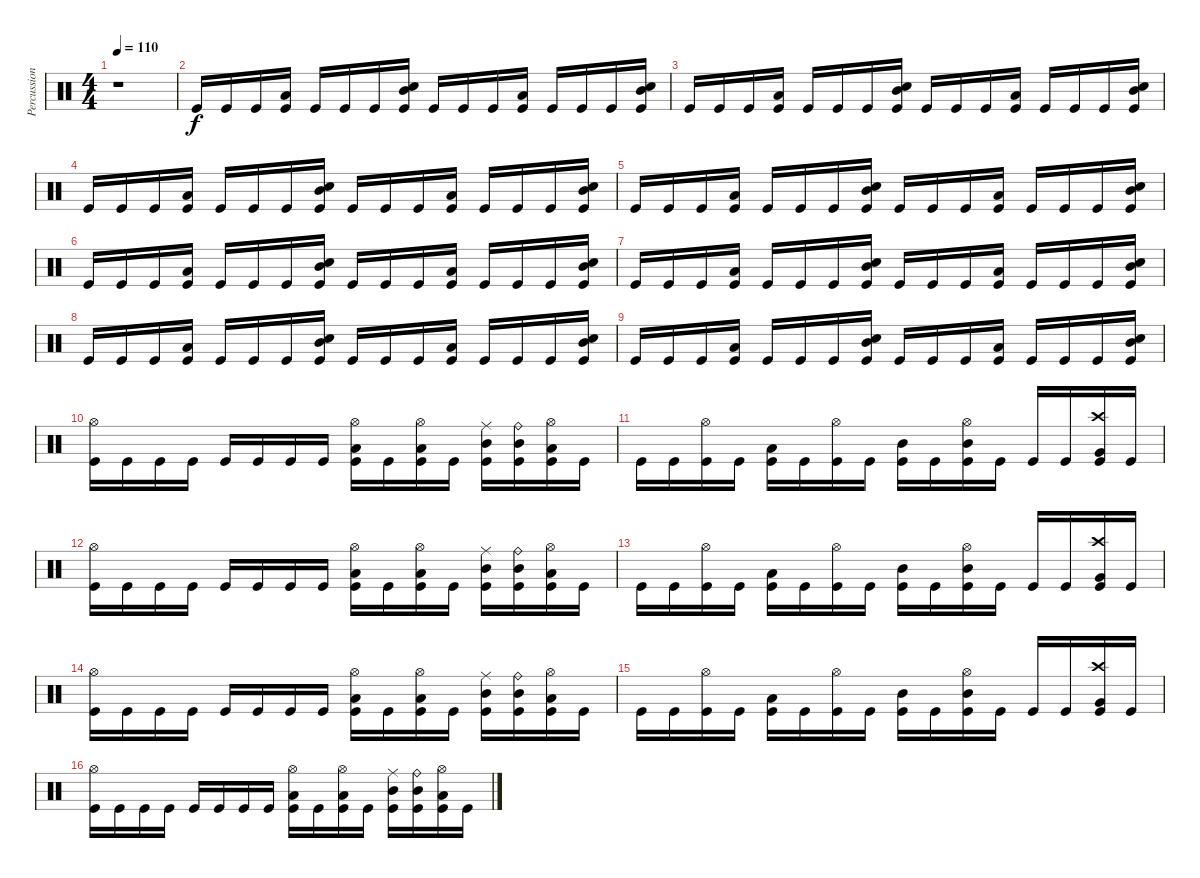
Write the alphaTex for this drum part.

\track ("Percussion" "Percussion") {instrument percussion}
\staff {score}
\articulation defaults
\ts (4 4)
\tempo 110
\clef neutral
\ks c
r.1{dy f} |
"Kick (hit)".16 "Kick (hit)".16 "Kick (hit)".16 ("Low Tom (hit)" "Kick (hit)").16 "Kick (hit)".16 "Kick (hit)".16 "Kick (hit)".16 ("Mid Tom (hit)" "Electric Snare (hit)" "Kick (hit)").16 "Kick (hit)".16 "Kick (hit)".16 "Kick (hit)".16 ("Low Tom (hit)" "Kick (hit)").16 "Kick (hit)".16 "Kick (hit)".16 "Kick (hit)".16 ("Mid Tom (hit)" "Electric Snare (hit)" "Kick (hit)").16 |
"Kick (hit)".16 "Kick (hit)".16 "Kick (hit)".16 ("Low Tom (hit)" "Kick (hit)").16 "Kick (hit)".16 "Kick (hit)".16 "Kick (hit)".16 ("Mid Tom (hit)" "Electric Snare (hit)" "Kick (hit)").16 "Kick (hit)".16 "Kick (hit)".16 "Kick (hit)".16 ("Low Tom (hit)" "Kick (hit)").16 "Kick (hit)".16 "Kick (hit)".16 "Kick (hit)".16 ("Mid Tom (hit)" "Electric Snare (hit)" "Kick (hit)").16 |
"Kick (hit)".16 "Kick (hit)".16 "Kick (hit)".16 ("Low Tom (hit)" "Kick (hit)").16 "Kick (hit)".16 "Kick (hit)".16 "Kick (hit)".16 ("Mid Tom (hit)" "Electric Snare (hit)" "Kick (hit)").16 "Kick (hit)".16 "Kick (hit)".16 "Kick (hit)".16 ("Low Tom (hit)" "Kick (hit)").16 "Kick (hit)".16 "Kick (hit)".16 "Kick (hit)".16 ("Mid Tom (hit)" "Electric Snare (hit)" "Kick (hit)").16 |
"Kick (hit)".16 "Kick (hit)".16 "Kick (hit)".16 ("Low Tom (hit)" "Kick (hit)").16 "Kick (hit)".16 "Kick (hit)".16 "Kick (hit)".16 ("Mid Tom (hit)" "Electric Snare (hit)" "Kick (hit)").16 "Kick (hit)".16 "Kick (hit)".16 "Kick (hit)".16 ("Low Tom (hit)" "Kick (hit)").16 "Kick (hit)".16 "Kick (hit)".16 "Kick (hit)".16 ("Mid Tom (hit)" "Electric Snare (hit)" "Kick (hit)").16 |
"Kick (hit)".16 "Kick (hit)".16 "Kick (hit)".16 ("Low Tom (hit)" "Kick (hit)").16 "Kick (hit)".16 "Kick (hit)".16 "Kick (hit)".16 ("Mid Tom (hit)" "Electric Snare (hit)" "Kick (hit)").16 "Kick (hit)".16 "Kick (hit)".16 "Kick (hit)".16 ("Low Tom (hit)" "Kick (hit)").16 "Kick (hit)".16 "Kick (hit)".16 "Kick (hit)".16 ("Mid Tom (hit)" "Electric Snare (hit)" "Kick (hit)").16 |
"Kick (hit)".16 "Kick (hit)".16 "Kick (hit)".16 ("Low Tom (hit)" "Kick (hit)").16 "Kick (hit)".16 "Kick (hit)".16 "Kick (hit)".16 ("Mid Tom (hit)" "Electric Snare (hit)" "Kick (hit)").16 "Kick (hit)".16 "Kick (hit)".16 "Kick (hit)".16 ("Low Tom (hit)" "Kick (hit)").16 "Kick (hit)".16 "Kick (hit)".16 "Kick (hit)".16 ("Mid Tom (hit)" "Electric Snare (hit)" "Kick (hit)").16 |
"Kick (hit)".16 "Kick (hit)".16 "Kick (hit)".16 ("Low Tom (hit)" "Kick (hit)").16 "Kick (hit)".16 "Kick (hit)".16 "Kick (hit)".16 ("Mid Tom (hit)" "Electric Snare (hit)" "Kick (hit)").16 "Kick (hit)".16 "Kick (hit)".16 "Kick (hit)".16 ("Low Tom (hit)" "Kick (hit)").16 "Kick (hit)".16 "Kick (hit)".16 "Kick (hit)".16 ("Mid Tom (hit)" "Electric Snare (hit)" "Kick (hit)").16 |
"Kick (hit)".16 "Kick (hit)".16 "Kick (hit)".16 ("Low Tom (hit)" "Kick (hit)").16 "Kick (hit)".16 "Kick (hit)".16 "Kick (hit)".16 ("Mid Tom (hit)" "Electric Snare (hit)" "Kick (hit)").16 "Kick (hit)".16 "Kick (hit)".16 "Kick (hit)".16 ("Low Tom (hit)" "Kick (hit)").16 "Kick (hit)".16 "Kick (hit)".16 "Kick (hit)".16 ("Mid Tom (hit)" "Electric Snare (hit)" "Kick (hit)").16 |
("Hi-Hat (open)" "Kick (hit)").16 "Kick (hit)".16 "Kick (hit)".16 "Kick (hit)".16 "Kick (hit)".16 "Kick (hit)".16 "Kick (hit)".16 "Kick (hit)".16 ("Hi-Hat (open)" "Low Tom (hit)" "Kick (hit)").16 "Kick (hit)".16 ("Hi-Hat (open)" "Low Tom (hit)" "Kick (hit)").16 "Kick (hit)".16 ("Ride (middle)" "Mid Tom (hit)" "Kick (hit)").16 ("Ride (bell)" "Mid Tom (hit)" "Kick (hit)").16 ("Hi-Hat (open)" "Low Tom (hit)" "Kick (hit)").16 "Kick (hit)".16 |
"Kick (hit)".16 "Kick (hit)".16 ("Hi-Hat (open)" "Kick (hit)").16 "Kick (hit)".16 ("Low Tom (hit)" "Kick (hit)").16 "Kick (hit)".16 ("Hi-Hat (open)" "Kick (hit)").16 "Kick (hit)".16 ("Mid Tom (hit)" "Kick (hit)").16 "Kick (hit)".16 ("Hi-Hat (open)" "Mid Tom (hit)" "Kick (hit)").16 "Kick (hit)".16 "Kick (hit)".16 "Kick (hit)".16 ("Crash high (hit)" "Very Low Tom (hit)" "Kick (hit)").16 "Kick (hit)".16 |
("Hi-Hat (open)" "Kick (hit)").16 "Kick (hit)".16 "Kick (hit)".16 "Kick (hit)".16 "Kick (hit)".16 "Kick (hit)".16 "Kick (hit)".16 "Kick (hit)".16 ("Hi-Hat (open)" "Low Tom (hit)" "Kick (hit)").16 "Kick (hit)".16 ("Hi-Hat (open)" "Low Tom (hit)" "Kick (hit)").16 "Kick (hit)".16 ("Ride (middle)" "Mid Tom (hit)" "Kick (hit)").16 ("Ride (bell)" "Mid Tom (hit)" "Kick (hit)").16 ("Hi-Hat (open)" "Low Tom (hit)" "Kick (hit)").16 "Kick (hit)".16 |
"Kick (hit)".16 "Kick (hit)".16 ("Hi-Hat (open)" "Kick (hit)").16 "Kick (hit)".16 ("Low Tom (hit)" "Kick (hit)").16 "Kick (hit)".16 ("Hi-Hat (open)" "Kick (hit)").16 "Kick (hit)".16 ("Mid Tom (hit)" "Kick (hit)").16 "Kick (hit)".16 ("Hi-Hat (open)" "Mid Tom (hit)" "Kick (hit)").16 "Kick (hit)".16 "Kick (hit)".16 "Kick (hit)".16 ("Crash high (hit)" "Very Low Tom (hit)" "Kick (hit)").16 "Kick (hit)".16 |
("Hi-Hat (open)" "Kick (hit)").16 "Kick (hit)".16 "Kick (hit)".16 "Kick (hit)".16 "Kick (hit)".16 "Kick (hit)".16 "Kick (hit)".16 "Kick (hit)".16 ("Hi-Hat (open)" "Low Tom (hit)" "Kick (hit)").16 "Kick (hit)".16 ("Hi-Hat (open)" "Low Tom (hit)" "Kick (hit)").16 "Kick (hit)".16 ("Ride (middle)" "Mid Tom (hit)" "Kick (hit)").16 ("Ride (bell)" "Mid Tom (hit)" "Kick (hit)").16 ("Hi-Hat (open)" "Low Tom (hit)" "Kick (hit)").16 "Kick (hit)".16 |
"Kick (hit)".16 "Kick (hit)".16 ("Hi-Hat (open)" "Kick (hit)").16 "Kick (hit)".16 ("Low Tom (hit)" "Kick (hit)").16 "Kick (hit)".16 ("Hi-Hat (open)" "Kick (hit)").16 "Kick (hit)".16 ("Mid Tom (hit)" "Kick (hit)").16 "Kick (hit)".16 ("Hi-Hat (open)" "Mid Tom (hit)" "Kick (hit)").16 "Kick (hit)".16 "Kick (hit)".16 "Kick (hit)".16 ("Crash high (hit)" "Very Low Tom (hit)" "Kick (hit)").16 "Kick (hit)".16 |
("Hi-Hat (open)" "Kick (hit)").16 "Kick (hit)".16 "Kick (hit)".16 "Kick (hit)".16 "Kick (hit)".16 "Kick (hit)".16 "Kick (hit)".16 "Kick (hit)".16 ("Hi-Hat (open)" "Low Tom (hit)" "Kick (hit)").16 "Kick (hit)".16 ("Hi-Hat (open)" "Low Tom (hit)" "Kick (hit)").16 "Kick (hit)".16 ("Ride (middle)" "Mid Tom (hit)" "Kick (hit)").16 ("Ride (bell)" "Mid Tom (hit)" "Kick (hit)").16 ("Hi-Hat (open)" "Low Tom (hit)" "Kick (hit)").16 "Kick (hit)".16
